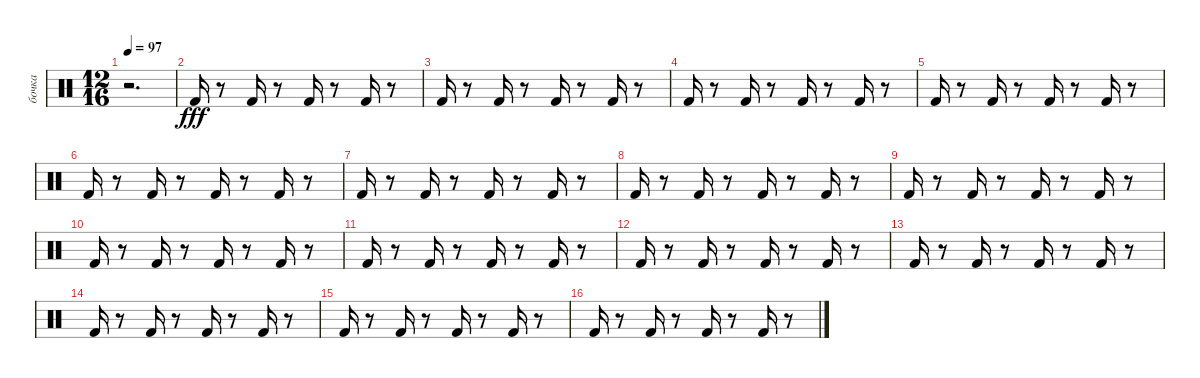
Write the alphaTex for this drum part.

\track ("бочка" "бочка") {instrument percussion}
\staff {score}
\articulation defaults
\ts (12 16)
\tempo 97
\clef neutral
\ks c
r.2{d dy fff} |
"Kick (hit) 2".16 r.8 "Kick (hit) 2".16 r.8 "Kick (hit) 2".16 r.8 "Kick (hit) 2".16 r.8 |
"Kick (hit) 2".16 r.8 "Kick (hit) 2".16 r.8 "Kick (hit) 2".16 r.8 "Kick (hit) 2".16 r.8 |
"Kick (hit) 2".16 r.8 "Kick (hit) 2".16 r.8 "Kick (hit) 2".16 r.8 "Kick (hit) 2".16 r.8 |
"Kick (hit) 2".16 r.8 "Kick (hit) 2".16 r.8 "Kick (hit) 2".16 r.8 "Kick (hit) 2".16 r.8 |
"Kick (hit) 2".16 r.8 "Kick (hit) 2".16 r.8 "Kick (hit) 2".16 r.8 "Kick (hit) 2".16 r.8 |
"Kick (hit) 2".16 r.8 "Kick (hit) 2".16 r.8 "Kick (hit) 2".16 r.8 "Kick (hit) 2".16 r.8 |
"Kick (hit) 2".16 r.8 "Kick (hit) 2".16 r.8 "Kick (hit) 2".16 r.8 "Kick (hit) 2".16 r.8 |
"Kick (hit) 2".16 r.8 "Kick (hit) 2".16 r.8 "Kick (hit) 2".16 r.8 "Kick (hit) 2".16 r.8 |
"Kick (hit) 2".16 r.8 "Kick (hit) 2".16 r.8 "Kick (hit) 2".16 r.8 "Kick (hit) 2".16 r.8 |
"Kick (hit) 2".16 r.8 "Kick (hit) 2".16 r.8 "Kick (hit) 2".16 r.8 "Kick (hit) 2".16 r.8 |
"Kick (hit) 2".16 r.8 "Kick (hit) 2".16 r.8 "Kick (hit) 2".16 r.8 "Kick (hit) 2".16 r.8 |
"Kick (hit) 2".16 r.8 "Kick (hit) 2".16 r.8 "Kick (hit) 2".16 r.8 "Kick (hit) 2".16 r.8 |
"Kick (hit) 2".16 r.8 "Kick (hit) 2".16 r.8 "Kick (hit) 2".16 r.8 "Kick (hit) 2".16 r.8 |
"Kick (hit) 2".16 r.8 "Kick (hit) 2".16 r.8 "Kick (hit) 2".16 r.8 "Kick (hit) 2".16 r.8 |
"Kick (hit) 2".16 r.8 "Kick (hit) 2".16 r.8 "Kick (hit) 2".16 r.8 "Kick (hit) 2".16 r.8
